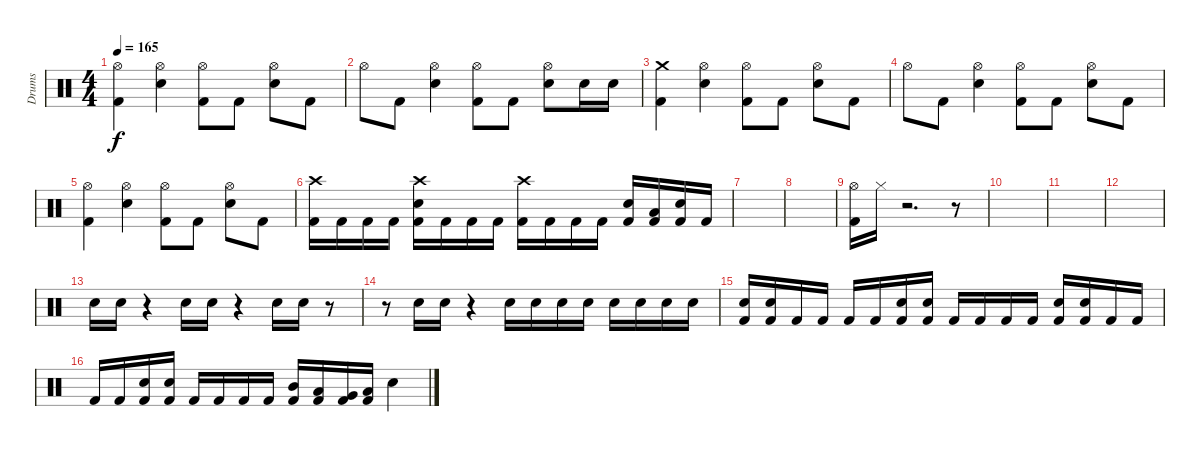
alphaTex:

\track ("Drums" "Drums") {instrument percussion}
\staff {score}
\articulation defaults
\ts (4 4)
\tempo 165
\clef neutral
\ks c
("Hi-Hat (open)" "Kick (hit) 2").4{dy f} ("Hi-Hat (open)" "Electric Snare (hit)").4 ("Hi-Hat (open)" "Kick (hit) 2").8 "Kick (hit) 2".8 ("Hi-Hat (open)" "Electric Snare (hit)").8 "Kick (hit) 2".8 |
"Hi-Hat (open)".8 "Kick (hit) 2".8 ("Hi-Hat (open)" "Electric Snare (hit)").4 ("Hi-Hat (open)" "Kick (hit) 2").8 "Kick (hit) 2".8 ("Hi-Hat (open)" "Electric Snare (hit)").8 "Electric Snare (hit)".16 "Electric Snare (hit)".16 |
("Crash medium (hit)" "Kick (hit) 2").4 ("Hi-Hat (open)" "Electric Snare (hit)").4 ("Hi-Hat (open)" "Kick (hit) 2").8 "Kick (hit) 2".8 ("Hi-Hat (open)" "Electric Snare (hit)").8 "Kick (hit) 2".8 |
"Hi-Hat (open)".8 "Kick (hit) 2".8 ("Hi-Hat (open)" "Electric Snare (hit)").4 ("Hi-Hat (open)" "Kick (hit) 2").8 "Kick (hit) 2".8 ("Hi-Hat (open)" "Electric Snare (hit)").8 "Kick (hit) 2".8 |
("Hi-Hat (open)" "Kick (hit) 2").4 ("Hi-Hat (open)" "Electric Snare (hit)").4 ("Hi-Hat (open)" "Kick (hit) 2").8 "Kick (hit) 2".8 ("Hi-Hat (open)" "Electric Snare (hit)").8 "Kick (hit) 2".8 |
("Crash high (hit)" "Kick (hit) 2").16 "Kick (hit) 2".16 "Kick (hit) 2".16 "Kick (hit) 2".16 ("Crash high (hit)" "Electric Snare (hit)" "Kick (hit) 2").16 "Kick (hit) 2".16 "Kick (hit) 2".16 "Kick (hit) 2".16 ("Crash high (hit)" "Kick (hit) 2").16 "Kick (hit) 2".16 "Kick (hit) 2".16 "Kick (hit) 2".16 ("Electric Snare (hit)" "Kick (hit) 2").16 ("Low Tom (hit)" "Kick (hit) 2").16 ("Electric Snare (hit)" "Kick (hit) 2").16 "Kick (hit) 2".16 |
|
|
("Hi-Hat (open)" "Kick (hit) 2").16 "Hi-Hat (closed)".16 r.2{d} r.8 |
|
|
|
"Electric Snare (hit)".16 "Electric Snare (hit)".16 r.4 "Electric Snare (hit)".16 "Electric Snare (hit)".16 r.4 "Electric Snare (hit)".16 "Electric Snare (hit)".16 r.8 |
r.8 "Electric Snare (hit)".16 "Electric Snare (hit)".16 r.4 "Electric Snare (hit)".16 "Electric Snare (hit)".16 "Electric Snare (hit)".16 "Electric Snare (hit)".16 "Electric Snare (hit)".16 "Electric Snare (hit)".16 "Electric Snare (hit)".16 "Electric Snare (hit)".16 |
("Electric Snare (hit)" "Kick (hit) 2").16 ("Electric Snare (hit)" "Kick (hit) 2").16 "Kick (hit) 2".16 "Kick (hit) 2".16 "Kick (hit) 2".16 "Kick (hit) 2".16 ("Electric Snare (hit)" "Kick (hit) 2").16 ("Electric Snare (hit)" "Kick (hit) 2").16 "Kick (hit) 2".16 "Kick (hit) 2".16 "Kick (hit) 2".16 "Kick (hit) 2".16 ("Electric Snare (hit)" "Kick (hit) 2").16 ("Electric Snare (hit)" "Kick (hit) 2").16 "Kick (hit) 2".16 "Kick (hit) 2".16 |
"Kick (hit) 2".16 "Kick (hit) 2".16 ("Electric Snare (hit)" "Kick (hit) 2").16 ("Electric Snare (hit)" "Kick (hit) 2").16 "Kick (hit) 2".16 "Kick (hit) 2".16 "Kick (hit) 2".16 "Kick (hit) 2".16 ("Mid Tom (hit)" "Kick (hit) 2").16 ("Low Tom (hit)" "Kick (hit) 2").16 ("Very Low Tom (hit)" "Kick (hit) 2").16 ("Low Floor Tom (hit)" "Kick (hit) 2").16 "Electric Snare (hit)".4
